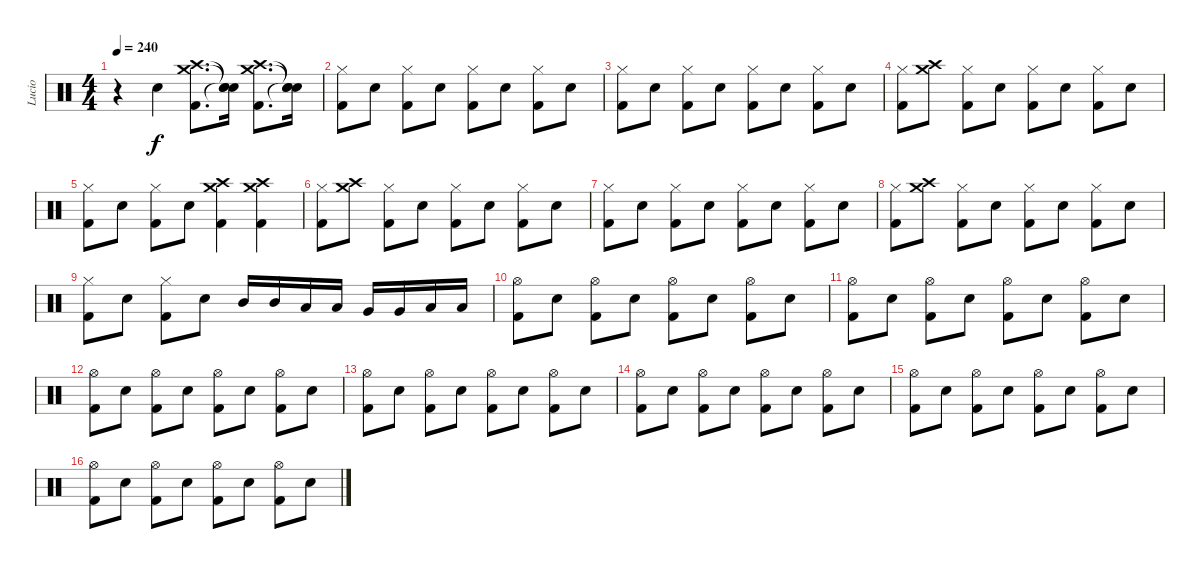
\track ("Lucio" "Lucio") {instrument percussion}
\staff {score}
\articulation defaults
\ts (4 4)
\tempo 240
\clef neutral
\ks c
r.4{dy f} "Electric Snare (hit)".4{volume 16} ("Crash medium (hit)" "Crash high (hit)" "Kick (hit) 2").8{d} ("Snare (hit)"{t} "Snare (hit)"{t} "Snare (hit)"{t}).16{volume 0} ("Crash medium (hit)" "Crash high (hit)" "Kick (hit) 2").8{d volume 16} ("Snare (hit)"{t} "Snare (hit)"{t} "Snare (hit)"{t}).16{volume 0} |
("Hi-Hat (closed)" "Kick (hit) 2").8{volume 16} "Electric Snare (hit)".8 ("Hi-Hat (closed)" "Kick (hit) 2").8 "Electric Snare (hit)".8 ("Hi-Hat (closed)" "Kick (hit) 2").8 "Electric Snare (hit)".8 ("Hi-Hat (closed)" "Kick (hit) 2").8 "Electric Snare (hit)".8 |
("Hi-Hat (closed)" "Kick (hit) 2").8 "Electric Snare (hit)".8 ("Hi-Hat (closed)" "Kick (hit) 2").8 "Electric Snare (hit)".8 ("Hi-Hat (closed)" "Kick (hit) 2").8 "Electric Snare (hit)".8 ("Hi-Hat (closed)" "Kick (hit) 2").8 "Electric Snare (hit)".8 |
("Hi-Hat (closed)" "Kick (hit) 2").8 ("Crash medium (hit)" "Crash high (hit)").8 ("Hi-Hat (closed)" "Kick (hit) 2").8 "Electric Snare (hit)".8 ("Hi-Hat (closed)" "Kick (hit) 2").8 "Electric Snare (hit)".8 ("Hi-Hat (closed)" "Kick (hit) 2").8 "Electric Snare (hit)".8 |
("Hi-Hat (closed)" "Kick (hit) 2").8 "Electric Snare (hit)".8 ("Hi-Hat (closed)" "Kick (hit) 2").8 "Electric Snare (hit)".8 ("Crash medium (hit)" "Crash high (hit)" "Kick (hit) 2").4 ("Crash medium (hit)" "Crash high (hit)" "Kick (hit) 2").4 |
("Hi-Hat (closed)" "Kick (hit) 2").8 ("Crash medium (hit)" "Crash high (hit)").8 ("Hi-Hat (closed)" "Kick (hit) 2").8 "Electric Snare (hit)".8 ("Hi-Hat (closed)" "Kick (hit) 2").8 "Electric Snare (hit)".8 ("Hi-Hat (closed)" "Kick (hit) 2").8 "Electric Snare (hit)".8 |
("Hi-Hat (closed)" "Kick (hit) 2").8 "Electric Snare (hit)".8 ("Hi-Hat (closed)" "Kick (hit) 2").8 "Electric Snare (hit)".8 ("Hi-Hat (closed)" "Kick (hit) 2").8 "Electric Snare (hit)".8 ("Hi-Hat (closed)" "Kick (hit) 2").8 "Electric Snare (hit)".8 |
("Hi-Hat (closed)" "Kick (hit) 2").8 ("Crash medium (hit)" "Crash high (hit)").8 ("Hi-Hat (closed)" "Kick (hit) 2").8 "Electric Snare (hit)".8 ("Hi-Hat (closed)" "Kick (hit) 2").8 "Electric Snare (hit)".8 ("Hi-Hat (closed)" "Kick (hit) 2").8 "Electric Snare (hit)".8 |
("Hi-Hat (closed)" "Kick (hit) 2").8 "Electric Snare (hit)".8 ("Hi-Hat (closed)" "Kick (hit) 2").8 "Electric Snare (hit)".8 "Mid Tom (hit)".16 "Mid Tom (hit)".16 "Low Tom (hit)".16 "Low Tom (hit)".16 "Very Low Tom (hit)".16 "Very Low Tom (hit)".16 "Low Floor Tom (hit)".16 "Low Floor Tom (hit)".16 |
("Hi-Hat (open)" "Kick (hit) 2").8 "Electric Snare (hit)".8 ("Hi-Hat (open)" "Kick (hit) 2").8 "Electric Snare (hit)".8 ("Hi-Hat (open)" "Kick (hit) 2").8 "Electric Snare (hit)".8 ("Hi-Hat (open)" "Kick (hit) 2").8 "Electric Snare (hit)".8 |
("Hi-Hat (open)" "Kick (hit) 2").8 "Electric Snare (hit)".8 ("Hi-Hat (open)" "Kick (hit) 2").8 "Electric Snare (hit)".8 ("Hi-Hat (open)" "Kick (hit) 2").8 "Electric Snare (hit)".8 ("Hi-Hat (open)" "Kick (hit) 2").8 "Electric Snare (hit)".8 |
("Hi-Hat (open)" "Kick (hit) 2").8 "Electric Snare (hit)".8 ("Hi-Hat (open)" "Kick (hit) 2").8 "Electric Snare (hit)".8 ("Hi-Hat (open)" "Kick (hit) 2").8 "Electric Snare (hit)".8 ("Hi-Hat (open)" "Kick (hit) 2").8 "Electric Snare (hit)".8 |
("Hi-Hat (open)" "Kick (hit) 2").8 "Electric Snare (hit)".8 ("Hi-Hat (open)" "Kick (hit) 2").8 "Electric Snare (hit)".8 ("Hi-Hat (open)" "Kick (hit) 2").8 "Electric Snare (hit)".8 ("Hi-Hat (open)" "Kick (hit) 2").8 "Electric Snare (hit)".8 |
("Hi-Hat (open)" "Kick (hit) 2").8 "Electric Snare (hit)".8 ("Hi-Hat (open)" "Kick (hit) 2").8 "Electric Snare (hit)".8 ("Hi-Hat (open)" "Kick (hit) 2").8 "Electric Snare (hit)".8 ("Hi-Hat (open)" "Kick (hit) 2").8 "Electric Snare (hit)".8 |
("Hi-Hat (open)" "Kick (hit) 2").8 "Electric Snare (hit)".8 ("Hi-Hat (open)" "Kick (hit) 2").8 "Electric Snare (hit)".8 ("Hi-Hat (open)" "Kick (hit) 2").8 "Electric Snare (hit)".8 ("Hi-Hat (open)" "Kick (hit) 2").8 "Electric Snare (hit)".8 |
("Hi-Hat (open)" "Kick (hit) 2").8 "Electric Snare (hit)".8 ("Hi-Hat (open)" "Kick (hit) 2").8 "Electric Snare (hit)".8 ("Hi-Hat (open)" "Kick (hit) 2").8 "Electric Snare (hit)".8 ("Hi-Hat (open)" "Kick (hit) 2").8 "Electric Snare (hit)".8
